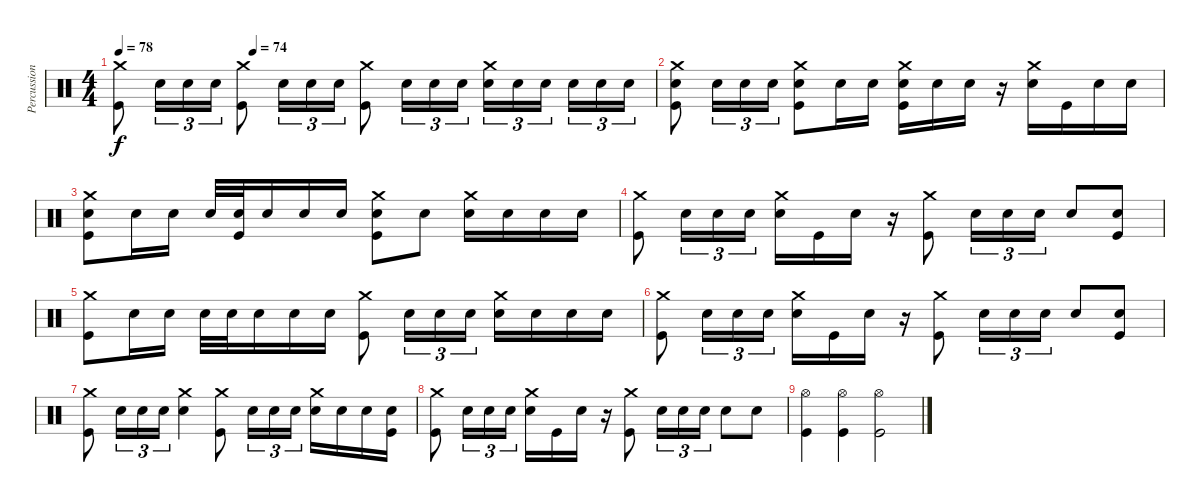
\track ("Percussion" "Percussion") {instrument percussion}
\staff {score}
\articulation defaults
\ts (4 4)
\tempo 78
\tempo (74 0.25)
\clef neutral
\ks c
("Crash medium (hit)" "Kick (hit)").8{dy f} "Electric Snare (hit)".16{tu (3 2)} "Electric Snare (hit)".16{tu (3 2)} "Electric Snare (hit)".16{tu (3 2)} ("Crash medium (hit)" "Kick (hit)").8 "Electric Snare (hit)".16{tu (3 2)} "Electric Snare (hit)".16{tu (3 2)} "Electric Snare (hit)".16{tu (3 2)} ("Crash medium (hit)" "Kick (hit)").8 "Electric Snare (hit)".16{tu (3 2)} "Electric Snare (hit)".16{tu (3 2)} "Electric Snare (hit)".16{tu (3 2)} ("Crash medium (hit)" "Electric Snare (hit)").16{tu (3 2)} "Electric Snare (hit)".16{tu (3 2)} "Electric Snare (hit)".16{tu (3 2)} "Electric Snare (hit)".16{tu (3 2)} "Electric Snare (hit)".16{tu (3 2)} "Electric Snare (hit)".16{tu (3 2)} |
("Crash medium (hit)" "Electric Snare (hit)" "Kick (hit)").8{volume 11} "Electric Snare (hit)".16{tu (3 2)} "Electric Snare (hit)".16{tu (3 2)} "Electric Snare (hit)".16{tu (3 2)} ("Crash medium (hit)" "Electric Snare (hit)" "Kick (hit)").8 "Electric Snare (hit)".16 "Electric Snare (hit)".16 ("Crash medium (hit)" "Electric Snare (hit)" "Kick (hit)").16 "Electric Snare (hit)".16 "Electric Snare (hit)".16 r.16 ("Crash medium (hit)" "Electric Snare (hit)").16 "Kick (hit)".16 "Electric Snare (hit)".16 "Electric Snare (hit)".16 |
("Crash medium (hit)" "Electric Snare (hit)" "Kick (hit)").8 "Electric Snare (hit)".16 "Electric Snare (hit)".16 "Electric Snare (hit)".32 ("Electric Snare (hit)" "Kick (hit)").32 "Electric Snare (hit)".16 "Electric Snare (hit)".16 "Electric Snare (hit)".16 ("Crash medium (hit)" "Electric Snare (hit)" "Kick (hit)").8 "Electric Snare (hit)".8 ("Crash medium (hit)" "Electric Snare (hit)").16 "Electric Snare (hit)".16 "Electric Snare (hit)".16 "Electric Snare (hit)".16 |
("Crash medium (hit)" "Kick (hit)").8 "Electric Snare (hit)".16{tu (3 2)} "Electric Snare (hit)".16{tu (3 2)} "Electric Snare (hit)".16{tu (3 2)} ("Crash medium (hit)" "Electric Snare (hit)").16 "Kick (hit)".16 "Electric Snare (hit)".16 r.16 ("Crash medium (hit)" "Kick (hit)").8 "Electric Snare (hit)".16{tu (3 2)} "Electric Snare (hit)".16{tu (3 2)} "Electric Snare (hit)".16{tu (3 2)} "Electric Snare (hit)".8 ("Electric Snare (hit)" "Kick (hit)").8 |
("Crash medium (hit)" "Kick (hit)").8 "Electric Snare (hit)".16 "Electric Snare (hit)".16 "Electric Snare (hit)".32 "Electric Snare (hit)".32 "Electric Snare (hit)".16 "Electric Snare (hit)".16 "Electric Snare (hit)".16 ("Crash medium (hit)" "Kick (hit)").8 "Electric Snare (hit)".16{tu (3 2)} "Electric Snare (hit)".16{tu (3 2)} "Electric Snare (hit)".16{tu (3 2)} ("Crash medium (hit)" "Electric Snare (hit)").16 "Electric Snare (hit)".16 "Electric Snare (hit)".16 "Electric Snare (hit)".16 |
("Crash medium (hit)" "Kick (hit)").8 "Electric Snare (hit)".16{tu (3 2)} "Electric Snare (hit)".16{tu (3 2)} "Electric Snare (hit)".16{tu (3 2)} ("Crash medium (hit)" "Electric Snare (hit)").16 "Kick (hit)".16 "Electric Snare (hit)".16 r.16 ("Crash medium (hit)" "Kick (hit)").8 "Electric Snare (hit)".16{tu (3 2)} "Electric Snare (hit)".16{tu (3 2)} "Electric Snare (hit)".16{tu (3 2)} "Electric Snare (hit)".8 ("Electric Snare (hit)" "Kick (hit)").8 |
("Crash medium (hit)" "Kick (hit)").8 "Electric Snare (hit)".16{tu (3 2)} "Electric Snare (hit)".16{tu (3 2)} "Electric Snare (hit)".16{tu (3 2)} ("Crash medium (hit)" "Electric Snare (hit)").4 ("Crash medium (hit)" "Kick (hit)").8 "Electric Snare (hit)".16{tu (3 2)} "Electric Snare (hit)".16{tu (3 2)} "Electric Snare (hit)".16{tu (3 2)} ("Crash medium (hit)" "Electric Snare (hit)").16 "Electric Snare (hit)".16 "Electric Snare (hit)".16 ("Electric Snare (hit)" "Kick (hit)").16 |
("Crash medium (hit)" "Kick (hit)").8 "Electric Snare (hit)".16{tu (3 2)} "Electric Snare (hit)".16{tu (3 2)} "Electric Snare (hit)".16{tu (3 2)} ("Crash medium (hit)" "Electric Snare (hit)").16 "Kick (hit)".16 "Electric Snare (hit)".16 r.16 ("Crash medium (hit)" "Kick (hit)").8 "Electric Snare (hit)".16{tu (3 2)} "Electric Snare (hit)".16{tu (3 2)} "Electric Snare (hit)".16{tu (3 2)} "Electric Snare (hit)".8 "Electric Snare (hit)".8 |
("Hi-Hat (open)" "Kick (hit)").4 ("Hi-Hat (open)" "Kick (hit)").4 ("Hi-Hat (open)" "Kick (hit)").2
